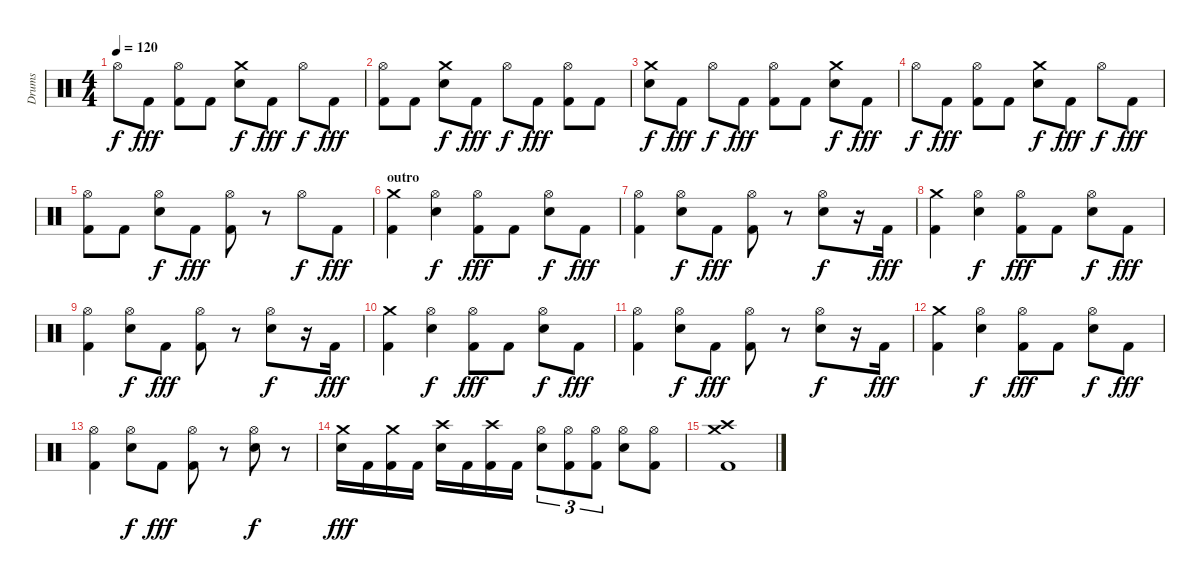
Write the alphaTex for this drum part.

\track ("Drums" "Drums") {instrument percussion}
\staff {score}
\articulation defaults
\ts (4 4)
\tempo 120
\clef neutral
\ks c "Hi-Hat (open)".8{dy f} "Kick (hit) 2".8{dy fff}
("Kick (hit) 2" "Hi-Hat (open)").8 "Kick (hit) 2".8 ("Crash medium (hit)" "Electric Snare (hit)").8{dy f} "Kick (hit) 2".8{dy fff} "Hi-Hat (open)".8{dy f} "Kick (hit) 2".8{dy fff} |
("Kick (hit) 2" "Hi-Hat (open)").8 "Kick (hit) 2".8 ("Crash medium (hit)" "Electric Snare (hit)").8{dy f} "Kick (hit) 2".8{dy fff} "Hi-Hat (open)".8{dy f} "Kick (hit) 2".8{dy fff} ("Kick (hit) 2" "Hi-Hat (open)").8 "Kick (hit) 2".8 |
("Crash medium (hit)" "Electric Snare (hit)").8{dy f} "Kick (hit) 2".8{dy fff} "Hi-Hat (open)".8{dy f} "Kick (hit) 2".8{dy fff} ("Kick (hit) 2" "Hi-Hat (open)").8 "Kick (hit) 2".8 ("Crash medium (hit)" "Electric Snare (hit)").8{dy f} "Kick (hit) 2".8{dy fff} |
"Hi-Hat (open)".8{dy f} "Kick (hit) 2".8{dy fff} ("Kick (hit) 2" "Hi-Hat (open)").8 "Kick (hit) 2".8 ("Crash medium (hit)" "Electric Snare (hit)").8{dy f} "Kick (hit) 2".8{dy fff} "Hi-Hat (open)".8{dy f} "Kick (hit) 2".8{dy fff} |
("Kick (hit) 2" "Hi-Hat (open)").8 "Kick (hit) 2".8 ("Hi-Hat (open)" "Electric Snare (hit)").8{dy f} "Kick (hit) 2".8{dy fff} ("Kick (hit) 2" "Hi-Hat (open)").8 r.8 "Hi-Hat (open)".8{dy f} "Kick (hit) 2".8{dy fff} |
\section ("" "outro")
("Kick (hit) 2" "Crash medium (hit)").4 ("Electric Snare (hit)" "Hi-Hat (open)").4{dy f} ("Kick (hit) 2" "Hi-Hat (open)").8{dy fff} "Kick (hit) 2".8 ("Electric Snare (hit)" "Hi-Hat (open)").8{dy f} "Kick (hit) 2".8{dy fff} |
("Kick (hit) 2" "Hi-Hat (open)").4 ("Electric Snare (hit)" "Hi-Hat (open)").8{dy f} "Kick (hit) 2".8{dy fff} ("Kick (hit) 2" "Hi-Hat (open)").8 r.8 ("Electric Snare (hit)" "Hi-Hat (open)").8{dy f} r.16 "Kick (hit) 2".16{dy fff} |
("Kick (hit) 2" "Crash medium (hit)").4 ("Electric Snare (hit)" "Hi-Hat (open)").4{dy f} ("Kick (hit) 2" "Hi-Hat (open)").8{dy fff} "Kick (hit) 2".8 ("Electric Snare (hit)" "Hi-Hat (open)").8{dy f} "Kick (hit) 2".8{dy fff} |
("Kick (hit) 2" "Hi-Hat (open)").4 ("Electric Snare (hit)" "Hi-Hat (open)").8{dy f} "Kick (hit) 2".8{dy fff} ("Kick (hit) 2" "Hi-Hat (open)").8 r.8 ("Electric Snare (hit)" "Hi-Hat (open)").8{dy f} r.16 "Kick (hit) 2".16{dy fff} |
("Kick (hit) 2" "Crash medium (hit)").4 ("Electric Snare (hit)" "Hi-Hat (open)").4{dy f} ("Kick (hit) 2" "Hi-Hat (open)").8{dy fff} "Kick (hit) 2".8 ("Electric Snare (hit)" "Hi-Hat (open)").8{dy f} "Kick (hit) 2".8{dy fff} |
("Kick (hit) 2" "Hi-Hat (open)").4 ("Electric Snare (hit)" "Hi-Hat (open)").8{dy f} "Kick (hit) 2".8{dy fff} ("Kick (hit) 2" "Hi-Hat (open)").8 r.8 ("Electric Snare (hit)" "Hi-Hat (open)").8{dy f} r.16 "Kick (hit) 2".16{dy fff} |
("Kick (hit) 2" "Crash medium (hit)").4 ("Electric Snare (hit)" "Hi-Hat (open)").4{dy f} ("Kick (hit) 2" "Hi-Hat (open)").8{dy fff} "Kick (hit) 2".8 ("Electric Snare (hit)" "Hi-Hat (open)").8{dy f} "Kick (hit) 2".8{dy fff} |
("Kick (hit) 2" "Hi-Hat (open)").4 ("Electric Snare (hit)" "Hi-Hat (open)").8{dy f} "Kick (hit) 2".8{dy fff} ("Kick (hit) 2" "Hi-Hat (open)").8 r.8 ("Electric Snare (hit)" "Hi-Hat (open)").8{dy f} r.8 |
("Crash medium (hit)" "Electric Snare (hit)").16{dy fff} "Kick (hit) 2".16 ("Crash medium (hit)" "Kick (hit) 2").16 "Kick (hit) 2".16 ("Crash high (hit)" "Electric Snare (hit)").16 "Kick (hit) 2".16 ("Crash high (hit)" "Kick (hit) 2").16 "Kick (hit) 2".16 ("Hi-Hat (open)" "Electric Snare (hit)").8{tu (3 2)} ("Hi-Hat (open)" "Kick (hit) 2").8{tu (3 2)} ("Hi-Hat (open)" "Kick (hit) 2").8{tu (3 2)} ("Hi-Hat (open)" "Electric Snare (hit)").8 ("Hi-Hat (open)" "Kick (hit) 2").8 |
("Crash high (hit)" "Crash medium (hit)" "Kick (hit) 2").1
